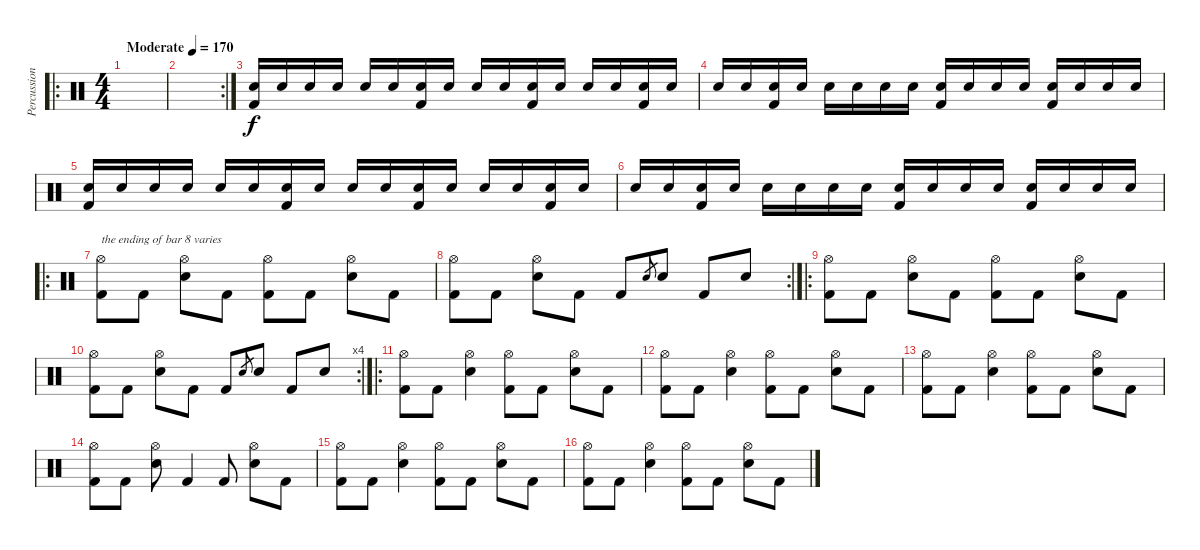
\track ("Percussion" "Percussion") {instrument percussion}
\staff {score}
\articulation defaults
\ro
\ts (4 4)
\tempo (170 "Moderate")
\clef neutral
\ks c
|
\rc 2
|
("Electric Snare (hit)" "Kick (hit) 2").16 "Electric Snare (hit)".16 "Electric Snare (hit)".16 "Electric Snare (hit)".16 "Electric Snare (hit)".16 "Electric Snare (hit)".16 ("Electric Snare (hit)" "Kick (hit) 2").16 "Electric Snare (hit)".16 "Electric Snare (hit)".16 "Electric Snare (hit)".16 ("Electric Snare (hit)" "Kick (hit) 2").16 "Electric Snare (hit)".16 "Electric Snare (hit)".16 "Electric Snare (hit)".16 ("Electric Snare (hit)" "Kick (hit) 2").16 "Electric Snare (hit)".16 |
"Electric Snare (hit)".16 "Electric Snare (hit)".16 ("Electric Snare (hit)" "Kick (hit) 2").16 "Electric Snare (hit)".16 "Electric Snare (hit)".16 "Electric Snare (hit)".16 "Electric Snare (hit)".16 "Electric Snare (hit)".16 ("Electric Snare (hit)" "Kick (hit) 2").16 "Electric Snare (hit)".16 "Electric Snare (hit)".16 "Electric Snare (hit)".16 ("Electric Snare (hit)" "Kick (hit) 2").16 "Electric Snare (hit)".16 "Electric Snare (hit)".16 "Electric Snare (hit)".16 |
("Electric Snare (hit)" "Kick (hit) 2").16 "Electric Snare (hit)".16 "Electric Snare (hit)".16 "Electric Snare (hit)".16 "Electric Snare (hit)".16 "Electric Snare (hit)".16 ("Electric Snare (hit)" "Kick (hit) 2").16 "Electric Snare (hit)".16 "Electric Snare (hit)".16 "Electric Snare (hit)".16 ("Electric Snare (hit)" "Kick (hit) 2").16 "Electric Snare (hit)".16 "Electric Snare (hit)".16 "Electric Snare (hit)".16 ("Electric Snare (hit)" "Kick (hit) 2").16 "Electric Snare (hit)".16 |
"Electric Snare (hit)".16 "Electric Snare (hit)".16 ("Electric Snare (hit)" "Kick (hit) 2").16 "Electric Snare (hit)".16 "Electric Snare (hit)".16 "Electric Snare (hit)".16 "Electric Snare (hit)".16 "Electric Snare (hit)".16 ("Electric Snare (hit)" "Kick (hit) 2").16 "Electric Snare (hit)".16 "Electric Snare (hit)".16 "Electric Snare (hit)".16 ("Electric Snare (hit)" "Kick (hit) 2").16 "Electric Snare (hit)".16 "Electric Snare (hit)".16 "Electric Snare (hit)".16 |
\ro
("Hi-Hat (open)" "Kick (hit) 2").8{txt "the ending of bar 8 varies"} "Kick (hit) 2".8 ("Hi-Hat (open)" "Electric Snare (hit)").8 "Kick (hit) 2".8 ("Hi-Hat (open)" "Kick (hit) 2").8 "Kick (hit) 2".8 ("Hi-Hat (open)" "Electric Snare (hit)").8 "Kick (hit) 2".8 |
\rc 2
("Hi-Hat (open)" "Kick (hit) 2").8 "Kick (hit) 2".8 ("Hi-Hat (open)" "Electric Snare (hit)").8 "Kick (hit) 2".8 "Kick (hit) 2".8 "Electric Snare (hit)".8{gr} "Electric Snare (hit)".8 "Kick (hit) 2".8 "Electric Snare (hit)".8 |
\ro
("Hi-Hat (open)" "Kick (hit) 2").8 "Kick (hit) 2".8 ("Hi-Hat (open)" "Electric Snare (hit)").8 "Kick (hit) 2".8 ("Hi-Hat (open)" "Kick (hit) 2").8 "Kick (hit) 2".8 ("Hi-Hat (open)" "Electric Snare (hit)").8 "Kick (hit) 2".8 |
\rc 4
("Hi-Hat (open)" "Kick (hit) 2").8 "Kick (hit) 2".8 ("Hi-Hat (open)" "Electric Snare (hit)").8 "Kick (hit) 2".8 "Kick (hit) 2".8 "Electric Snare (hit)".8{gr} "Electric Snare (hit)".8 "Kick (hit) 2".8 "Electric Snare (hit)".8 |
\ro
("Hi-Hat (open)" "Kick (hit) 2").8 "Kick (hit) 2".8 ("Hi-Hat (open)" "Electric Snare (hit)").4 ("Hi-Hat (open)" "Kick (hit) 2").8 "Kick (hit) 2".8 ("Hi-Hat (open)" "Electric Snare (hit)").8 "Kick (hit) 2".8 |
("Hi-Hat (open)" "Kick (hit) 2").8 "Kick (hit) 2".8 ("Hi-Hat (open)" "Electric Snare (hit)").4 ("Hi-Hat (open)" "Kick (hit) 2").8 "Kick (hit) 2".8 ("Hi-Hat (open)" "Electric Snare (hit)").8 "Kick (hit) 2".8 |
("Hi-Hat (open)" "Kick (hit) 2").8 "Kick (hit) 2".8 ("Hi-Hat (open)" "Electric Snare (hit)").4 ("Hi-Hat (open)" "Kick (hit) 2").8 "Kick (hit) 2".8 ("Hi-Hat (open)" "Electric Snare (hit)").8 "Kick (hit) 2".8 |
("Hi-Hat (open)" "Kick (hit) 2").8 "Kick (hit) 2".8 ("Hi-Hat (open)" "Electric Snare (hit)").8 "Kick (hit) 2".4 "Kick (hit) 2".8 ("Hi-Hat (open)" "Electric Snare (hit)").8 "Kick (hit) 2".8 |
("Hi-Hat (open)" "Kick (hit) 2").8 "Kick (hit) 2".8 ("Hi-Hat (open)" "Electric Snare (hit)").4 ("Hi-Hat (open)" "Kick (hit) 2").8 "Kick (hit) 2".8 ("Hi-Hat (open)" "Electric Snare (hit)").8 "Kick (hit) 2".8 |
("Hi-Hat (open)" "Kick (hit) 2").8 "Kick (hit) 2".8 ("Hi-Hat (open)" "Electric Snare (hit)").4 ("Hi-Hat (open)" "Kick (hit) 2").8 "Kick (hit) 2".8 ("Hi-Hat (open)" "Electric Snare (hit)").8 "Kick (hit) 2".8
